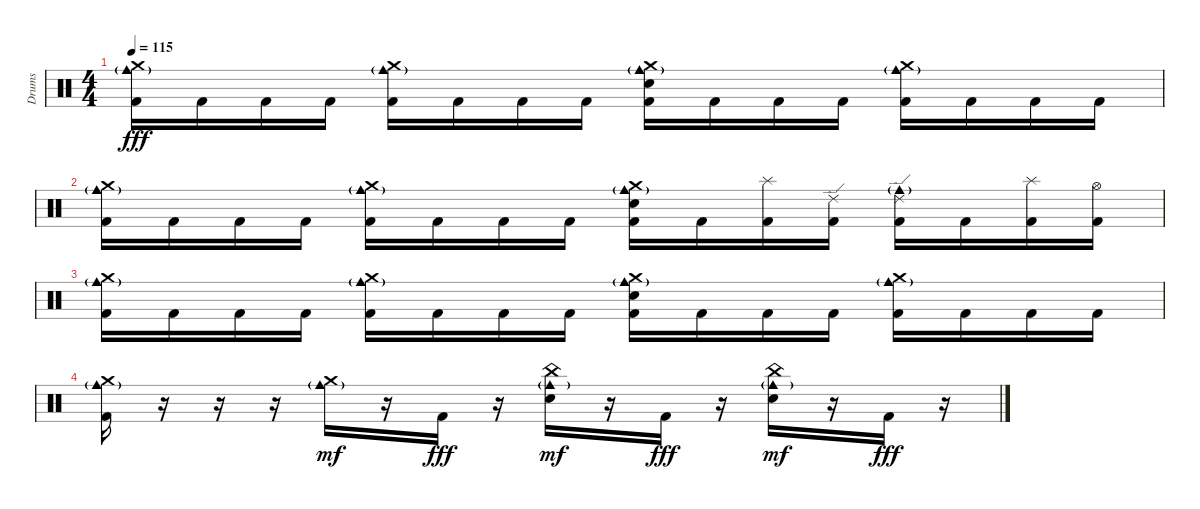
\track ("Drums" "Drums") {instrument percussion}
\staff {score}
\articulation defaults
\ts (4 4)
\tempo 115
\clef neutral
\ks c
("Crash medium (hit)" "Cowbell medium (hit)"{g} "Kick (hit) 2").16{dy fff} "Kick (hit) 2".16 "Kick (hit) 2".16 "Kick (hit) 2".16 ("Crash medium (hit)" "Cowbell medium (hit)"{g} "Kick (hit) 2").16 "Kick (hit) 2".16 "Kick (hit) 2".16 "Kick (hit) 2".16 ("Crash medium (hit)" "Cowbell medium (hit)"{g} "Electric Snare (hit)" "Kick (hit) 2").16 "Kick (hit) 2".16 "Kick (hit) 2".16 "Kick (hit) 2".16 ("Crash medium (hit)" "Cowbell medium (hit)"{g} "Kick (hit) 2").16 "Kick (hit) 2".16 "Kick (hit) 2".16 "Kick (hit) 2".16 |
("Crash medium (hit)" "Cowbell medium (hit)"{g} "Kick (hit) 2").16 "Kick (hit) 2".16 "Kick (hit) 2".16 "Kick (hit) 2".16 ("Crash medium (hit)" "Cowbell medium (hit)"{g} "Kick (hit) 2").16 "Kick (hit) 2".16 "Kick (hit) 2".16 "Kick (hit) 2".16 ("Crash medium (hit)" "Cowbell medium (hit)"{g} "Electric Snare (hit)" "Kick (hit) 2").16 "Kick (hit) 2".16 ("Splash (hit)" "Kick (hit) 2").16 ("Ride (edge) 2" "Kick (hit) 2").16 ("Ride (edge) 2" "Cowbell medium (hit)"{g} "Kick (hit) 2").16 "Kick (hit) 2".16 ("Splash (hit)" "Kick (hit) 2").16 ("Hi-Hat (open)" "Kick (hit) 2").16 |
("Crash medium (hit)" "Cowbell medium (hit)"{g} "Kick (hit) 2").16 "Kick (hit) 2".16 "Kick (hit) 2".16 "Kick (hit) 2".16 ("Crash medium (hit)" "Cowbell medium (hit)"{g} "Kick (hit) 2").16 "Kick (hit) 2".16 "Kick (hit) 2".16 "Kick (hit) 2".16 ("Crash medium (hit)" "Cowbell medium (hit)"{g} "Electric Snare (hit)" "Kick (hit) 2").16 "Kick (hit) 2".16 "Kick (hit) 2".16 "Kick (hit) 2".16 ("Crash medium (hit)" "Cowbell medium (hit)"{g} "Kick (hit) 2").16 "Kick (hit) 2".16 "Kick (hit) 2".16 "Kick (hit) 2".16 |
("Crash medium (hit)" "Cowbell medium (hit)"{g} "Kick (hit) 2").16 r.16 r.16 r.16 ("Crash medium (hit)" "Cowbell medium (hit)"{g}).16{dy mf} r.16 "Kick (hit) 2".16{dy fff} r.16 ("China (hit)" "Cowbell medium (hit)"{g} "Electric Snare (hit)").16{dy mf} r.16 "Kick (hit) 2".16{dy fff} r.16 ("China (hit)" "Cowbell medium (hit)"{g} "Electric Snare (hit)").16{dy mf} r.16 "Kick (hit) 2".16{dy fff} r.16
